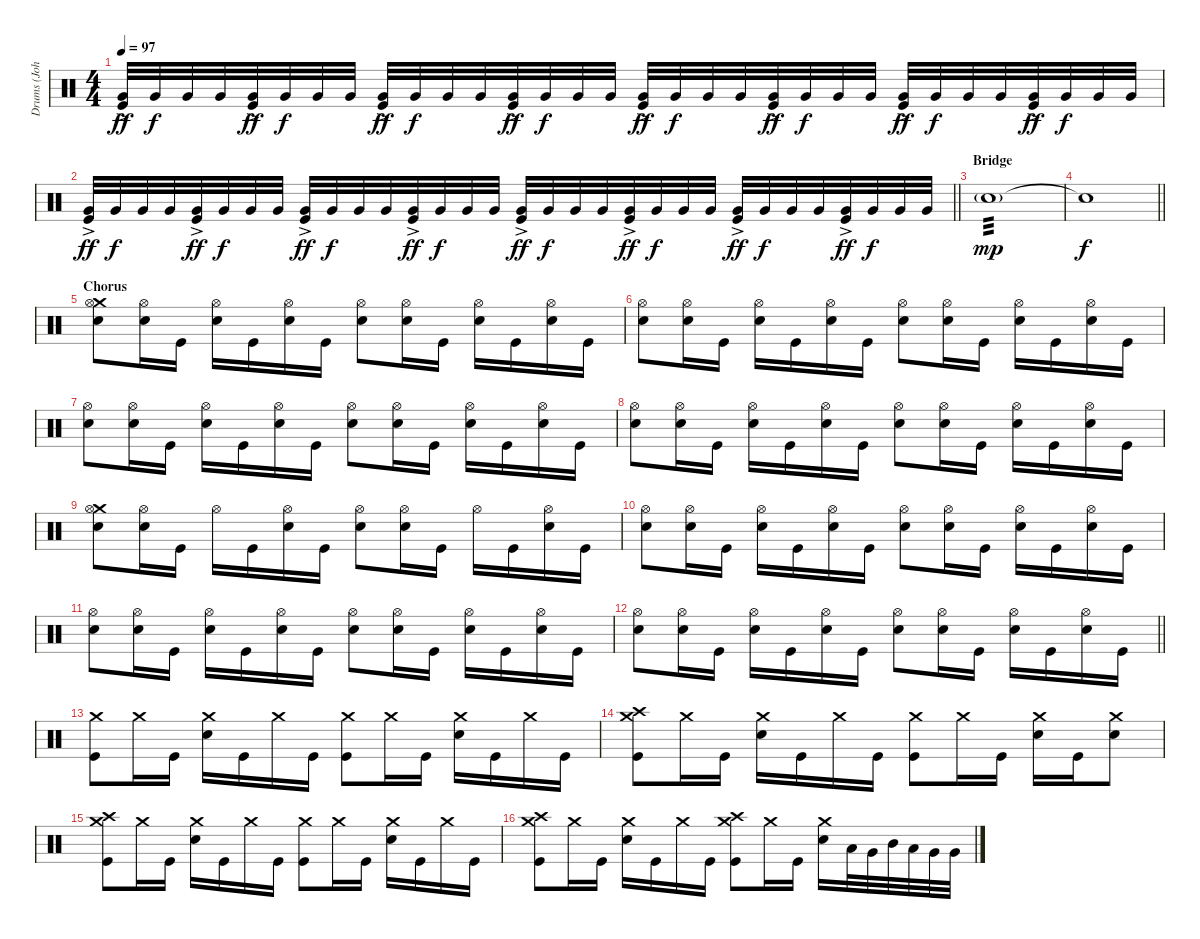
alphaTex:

\track ("Drums (John Ensminger)" "Drums (Joh") {instrument percussion}
\staff {score}
\articulation defaults
\ts (4 4)
\tempo 97
\clef neutral
\ks c
("Very Low Tom (hit)"{ac} "Kick (hit)").32{dy ff} "Very Low Tom (hit)".32{dy f} "Very Low Tom (hit)".32 "Very Low Tom (hit)".32 ("Very Low Tom (hit)"{ac} "Kick (hit)").32{dy ff} "Very Low Tom (hit)".32{dy f} "Very Low Tom (hit)".32 "Very Low Tom (hit)".32 ("Very Low Tom (hit)"{ac} "Kick (hit)").32{dy ff} "Very Low Tom (hit)".32{dy f} "Very Low Tom (hit)".32 "Very Low Tom (hit)".32 ("Very Low Tom (hit)"{ac} "Kick (hit)").32{dy ff} "Very Low Tom (hit)".32{dy f} "Very Low Tom (hit)".32 "Very Low Tom (hit)".32 ("Very Low Tom (hit)"{ac} "Kick (hit)").32{dy ff} "Very Low Tom (hit)".32{dy f} "Very Low Tom (hit)".32 "Very Low Tom (hit)".32 ("Very Low Tom (hit)"{ac} "Kick (hit)").32{dy ff} "Very Low Tom (hit)".32{dy f} "Very Low Tom (hit)".32 "Very Low Tom (hit)".32 ("Very Low Tom (hit)"{ac} "Kick (hit)").32{dy ff} "Very Low Tom (hit)".32{dy f} "Very Low Tom (hit)".32 "Very Low Tom (hit)".32 ("Very Low Tom (hit)"{ac} "Kick (hit)").32{dy ff} "Very Low Tom (hit)".32{dy f} "Very Low Tom (hit)".32 "Very Low Tom (hit)".32 |
\barLineRight lightlight
("Very Low Tom (hit)"{ac} "Kick (hit)").32{dy ff} "Very Low Tom (hit)".32{dy f} "Very Low Tom (hit)".32 "Very Low Tom (hit)".32 ("Very Low Tom (hit)"{ac} "Kick (hit)").32{dy ff} "Very Low Tom (hit)".32{dy f} "Very Low Tom (hit)".32 "Very Low Tom (hit)".32 ("Very Low Tom (hit)"{ac} "Kick (hit)").32{dy ff} "Very Low Tom (hit)".32{dy f} "Very Low Tom (hit)".32 "Very Low Tom (hit)".32 ("Very Low Tom (hit)"{ac} "Kick (hit)").32{dy ff} "Very Low Tom (hit)".32{dy f} "Very Low Tom (hit)".32 "Very Low Tom (hit)".32 ("Very Low Tom (hit)"{ac} "Kick (hit)").32{dy ff} "Very Low Tom (hit)".32{dy f} "Very Low Tom (hit)".32 "Very Low Tom (hit)".32 ("Very Low Tom (hit)"{ac} "Kick (hit)").32{dy ff} "Very Low Tom (hit)".32{dy f} "Very Low Tom (hit)".32 "Very Low Tom (hit)".32 ("Very Low Tom (hit)"{ac} "Kick (hit)").32{dy ff} "Very Low Tom (hit)".32{dy f} "Very Low Tom (hit)".32 "Very Low Tom (hit)".32 ("Very Low Tom (hit)"{ac} "Kick (hit)").32{dy ff} "Very Low Tom (hit)".32{dy f} "Very Low Tom (hit)".32 "Very Low Tom (hit)".32 |
\section ("" "Bridge")
"Snare (hit) 2"{g}.1{tp 3 dy mp} |
\barLineRight lightlight "Snare (hit)"{t}.1{dy f}
|
\section ("" "Chorus")
("Crash medium (hit)" "Hi-Hat (open)" "Electric Snare (hit)").8 ("Hi-Hat (open)" "Electric Snare (hit)").16 "Kick (hit)".16 ("Hi-Hat (open)" "Electric Snare (hit)").16 "Kick (hit)".16 ("Hi-Hat (open)" "Electric Snare (hit)").16 "Kick (hit)".16 ("Hi-Hat (open)" "Electric Snare (hit)").8 ("Hi-Hat (open)" "Electric Snare (hit)").16 "Kick (hit)".16 ("Hi-Hat (open)" "Electric Snare (hit)").16 "Kick (hit)".16 ("Hi-Hat (open)" "Electric Snare (hit)").16 "Kick (hit)".16 |
("Hi-Hat (open)" "Electric Snare (hit)").8 ("Hi-Hat (open)" "Electric Snare (hit)").16 "Kick (hit)".16 ("Hi-Hat (open)" "Electric Snare (hit)").16 "Kick (hit)".16 ("Hi-Hat (open)" "Electric Snare (hit)").16 "Kick (hit)".16 ("Hi-Hat (open)" "Electric Snare (hit)").8 ("Hi-Hat (open)" "Electric Snare (hit)").16 "Kick (hit)".16 ("Hi-Hat (open)" "Electric Snare (hit)").16 "Kick (hit)".16 ("Hi-Hat (open)" "Electric Snare (hit)").16 "Kick (hit)".16 |
("Hi-Hat (open)" "Electric Snare (hit)").8 ("Hi-Hat (open)" "Electric Snare (hit)").16 "Kick (hit)".16 ("Hi-Hat (open)" "Electric Snare (hit)").16 "Kick (hit)".16 ("Hi-Hat (open)" "Electric Snare (hit)").16 "Kick (hit)".16 ("Hi-Hat (open)" "Electric Snare (hit)").8 ("Hi-Hat (open)" "Electric Snare (hit)").16 "Kick (hit)".16 ("Hi-Hat (open)" "Electric Snare (hit)").16 "Kick (hit)".16 ("Hi-Hat (open)" "Electric Snare (hit)").16 "Kick (hit)".16 |
("Hi-Hat (open)" "Electric Snare (hit)").8 ("Hi-Hat (open)" "Electric Snare (hit)").16 "Kick (hit)".16 ("Hi-Hat (open)" "Electric Snare (hit)").16 "Kick (hit)".16 ("Hi-Hat (open)" "Electric Snare (hit)").16 "Kick (hit)".16 ("Hi-Hat (open)" "Electric Snare (hit)").8 ("Hi-Hat (open)" "Electric Snare (hit)").16 "Kick (hit)".16 ("Hi-Hat (open)" "Electric Snare (hit)").16 "Kick (hit)".16 ("Hi-Hat (open)" "Electric Snare (hit)").16 "Kick (hit)".16 |
("Crash medium (hit)" "Hi-Hat (open)" "Electric Snare (hit)").8 ("Hi-Hat (open)" "Electric Snare (hit)").16 "Kick (hit)".16 "Hi-Hat (open)".16 "Kick (hit)".16 ("Hi-Hat (open)" "Electric Snare (hit)").16 "Kick (hit)".16 ("Hi-Hat (open)" "Electric Snare (hit)").8 ("Hi-Hat (open)" "Electric Snare (hit)").16 "Kick (hit)".16 "Hi-Hat (open)".16 "Kick (hit)".16 ("Hi-Hat (open)" "Electric Snare (hit)").16 "Kick (hit)".16 |
("Hi-Hat (open)" "Electric Snare (hit)").8 ("Hi-Hat (open)" "Electric Snare (hit)").16 "Kick (hit)".16 ("Hi-Hat (open)" "Electric Snare (hit)").16 "Kick (hit)".16 ("Hi-Hat (open)" "Electric Snare (hit)").16 "Kick (hit)".16 ("Hi-Hat (open)" "Electric Snare (hit)").8 ("Hi-Hat (open)" "Electric Snare (hit)").16 "Kick (hit)".16 ("Hi-Hat (open)" "Electric Snare (hit)").16 "Kick (hit)".16 ("Hi-Hat (open)" "Electric Snare (hit)").16 "Kick (hit)".16 |
("Hi-Hat (open)" "Electric Snare (hit)").8 ("Hi-Hat (open)" "Electric Snare (hit)").16 "Kick (hit)".16 ("Hi-Hat (open)" "Electric Snare (hit)").16 "Kick (hit)".16 ("Hi-Hat (open)" "Electric Snare (hit)").16 "Kick (hit)".16 ("Hi-Hat (open)" "Electric Snare (hit)").8 ("Hi-Hat (open)" "Electric Snare (hit)").16 "Kick (hit)".16 ("Hi-Hat (open)" "Electric Snare (hit)").16 "Kick (hit)".16 ("Hi-Hat (open)" "Electric Snare (hit)").16 "Kick (hit)".16 |
\barLineRight lightlight
("Hi-Hat (open)" "Electric Snare (hit)").8 ("Hi-Hat (open)" "Electric Snare (hit)").16 "Kick (hit)".16 ("Hi-Hat (open)" "Electric Snare (hit)").16 "Kick (hit)".16 ("Hi-Hat (open)" "Electric Snare (hit)").16 "Kick (hit)".16 ("Hi-Hat (open)" "Electric Snare (hit)").8 ("Hi-Hat (open)" "Electric Snare (hit)").16 "Kick (hit)".16 ("Hi-Hat (open)" "Electric Snare (hit)").16 "Kick (hit)".16 ("Hi-Hat (open)" "Electric Snare (hit)").16 "Kick (hit)".16 |
("Crash medium (hit)" "Kick (hit)").8 "Crash medium (hit)".16 "Kick (hit)".16 ("Crash medium (hit)" "Electric Snare (hit)").16 "Kick (hit)".16 "Crash medium (hit)".16 "Kick (hit)".16 ("Crash medium (hit)" "Kick (hit)").8 "Crash medium (hit)".16 "Kick (hit)".16 ("Crash medium (hit)" "Electric Snare (hit)").16 "Kick (hit)".16 "Crash medium (hit)".16 "Kick (hit)".16 |
("Crash medium (hit)" "Crash high (hit)" "Kick (hit)").8 "Crash medium (hit)".16 "Kick (hit)".16 ("Crash medium (hit)" "Electric Snare (hit)").16 "Kick (hit)".16 "Crash medium (hit)".16 "Kick (hit)".16 ("Crash medium (hit)" "Kick (hit)").8 "Crash medium (hit)".16 "Kick (hit)".16 ("Crash medium (hit)" "Electric Snare (hit)").16 "Kick (hit)".16 ("Crash medium (hit)" "Electric Snare (hit)").8 |
("Crash medium (hit)" "Crash high (hit)" "Kick (hit)").8 "Crash medium (hit)".16 "Kick (hit)".16 ("Crash medium (hit)" "Electric Snare (hit)").16 "Kick (hit)".16 "Crash medium (hit)".16 "Kick (hit)".16 ("Crash medium (hit)" "Kick (hit)").8 "Crash medium (hit)".16 "Kick (hit)".16 ("Crash medium (hit)" "Electric Snare (hit)").16 "Kick (hit)".16 "Crash medium (hit)".16 "Kick (hit)".16 |
("Crash medium (hit)" "Crash high (hit)" "Kick (hit)").8 "Crash medium (hit)".16 "Kick (hit)".16 ("Crash medium (hit)" "Electric Snare (hit)").16 "Kick (hit)".16 "Crash medium (hit)".16 "Kick (hit)".16 ("Crash medium (hit)" "Crash high (hit)" "Kick (hit)").8 "Crash medium (hit)".16 "Kick (hit)".16 ("Crash medium (hit)" "Electric Snare (hit)").16 "Low Tom (hit)".32 "Very Low Tom (hit)".32 "Mid Tom (hit)".32 "Low Tom (hit)".32 "Very Low Tom (hit)".32 "Very Low Tom (hit)".32
